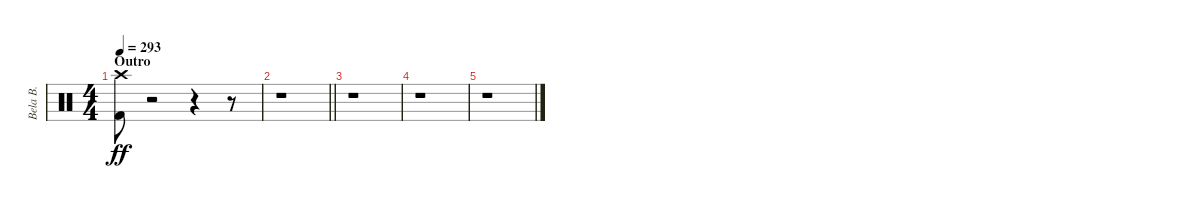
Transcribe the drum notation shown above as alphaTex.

\track ("Bela B." "Bela B.") {instrument percussion}
\staff {score}
\articulation defaults
\ts (4 4)
\section ("" "Outro")
\tempo 293
\clef neutral
\ks c
("Crash high (hit)" "Kick (hit) 2").8{dy ff} r.2 r.4 r.8 |
\barLineRight lightlight
r.1 |
r.1 |
r.1 |
r.1
